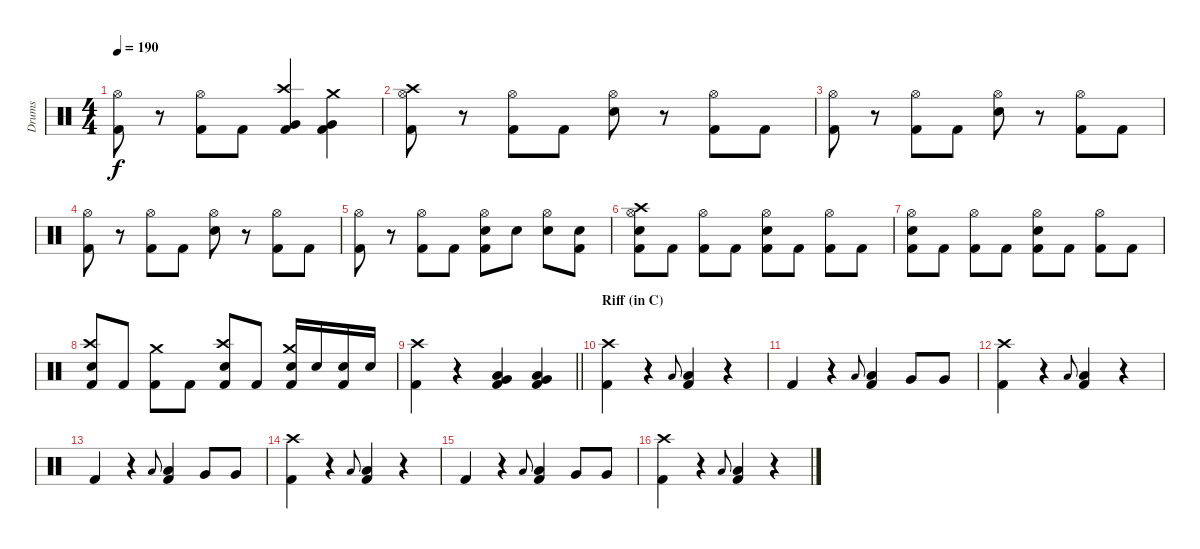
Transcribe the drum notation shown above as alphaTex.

\track ("Drums" "Drums") {instrument percussion}
\staff {score}
\articulation defaults
\ts (4 4)
\tempo 190
\clef neutral
\ks c
("Hi-Hat (open)" "Kick (hit) 2").8{dy f} r.8 ("Hi-Hat (open)" "Kick (hit) 2").8 "Kick (hit) 2".8 ("Crash high (hit)" "Very Low Tom (hit)" "Kick (hit) 2").4 ("Crash medium (hit)" "Very Low Tom (hit)" "Kick (hit) 2").4 |
("Crash high (hit)" "Hi-Hat (open)" "Kick (hit) 2").8 r.8 ("Hi-Hat (open)" "Kick (hit) 2").8 "Kick (hit) 2".8 ("Hi-Hat (open)" "Snare (hit) 2").8 r.8 ("Hi-Hat (open)" "Kick (hit) 2").8 "Kick (hit) 2".8 |
("Hi-Hat (open)" "Kick (hit) 2").8 r.8 ("Hi-Hat (open)" "Kick (hit) 2").8 "Kick (hit) 2".8 ("Hi-Hat (open)" "Snare (hit) 2").8 r.8 ("Hi-Hat (open)" "Kick (hit) 2").8 "Kick (hit) 2".8 |
("Hi-Hat (open)" "Kick (hit) 2").8 r.8 ("Hi-Hat (open)" "Kick (hit) 2").8 "Kick (hit) 2".8 ("Hi-Hat (open)" "Snare (hit) 2").8 r.8 ("Hi-Hat (open)" "Kick (hit) 2").8 "Kick (hit) 2".8 |
("Hi-Hat (open)" "Kick (hit) 2").8 r.8 ("Hi-Hat (open)" "Kick (hit) 2").8 "Kick (hit) 2".8 ("Hi-Hat (open)" "Snare (hit) 2" "Kick (hit) 2").8 "Snare (hit) 2".8 ("Hi-Hat (open)" "Snare (hit) 2").8 ("Snare (hit) 2" "Kick (hit) 2").8 |
("Crash high (hit)" "Hi-Hat (open)" "Snare (hit) 2" "Kick (hit) 2").8 "Kick (hit) 2".8 ("Hi-Hat (open)" "Kick (hit) 2").8 "Kick (hit) 2".8 ("Hi-Hat (open)" "Snare (hit) 2" "Kick (hit) 2").8 "Kick (hit) 2".8 ("Hi-Hat (open)" "Kick (hit) 2").8 "Kick (hit) 2".8 |
("Hi-Hat (open)" "Snare (hit) 2" "Kick (hit) 2").8 "Kick (hit) 2".8 ("Hi-Hat (open)" "Kick (hit) 2").8 "Kick (hit) 2".8 ("Hi-Hat (open)" "Snare (hit) 2" "Kick (hit) 2").8 "Kick (hit) 2".8 ("Hi-Hat (open)" "Kick (hit) 2").8 "Kick (hit) 2".8 |
("Crash high (hit)" "Snare (hit) 2" "Kick (hit) 2").8 "Kick (hit) 2".8 ("Crash medium (hit)" "Kick (hit) 2").8 "Kick (hit) 2".8 ("Crash high (hit)" "Snare (hit) 2" "Kick (hit) 2").8 "Kick (hit) 2".8 ("Crash medium (hit)" "Snare (hit) 2" "Kick (hit) 2").16 "Snare (hit) 2".16 ("Snare (hit) 2" "Kick (hit) 2").16 "Snare (hit) 2".16 |
\barLineRight lightlight
("Crash high (hit)" "Kick (hit) 2").4 r.4 ("Very Low Tom (hit)" "Low Floor Tom (hit)" "Kick (hit) 2").4 ("Very Low Tom (hit)" "Low Floor Tom (hit)" "Kick (hit) 2").4 |
\section ("" "Riff (in C)")
("Crash high (hit)" "Kick (hit) 2").4 r.4 "Low Floor Tom (hit)".8{gr onbeat} ("Low Floor Tom (hit)" "Kick (hit) 2").4 r.4 |
"Kick (hit) 2".4 r.4 "Low Floor Tom (hit)".8{gr onbeat} ("Low Floor Tom (hit)" "Kick (hit) 2").4 "Very Low Tom (hit)".8 "Very Low Tom (hit)".8 |
("Crash high (hit)" "Kick (hit) 2").4 r.4 "Low Floor Tom (hit)".8{gr onbeat} ("Low Floor Tom (hit)" "Kick (hit) 2").4 r.4 |
"Kick (hit) 2".4 r.4 "Low Floor Tom (hit)".8{gr onbeat} ("Low Floor Tom (hit)" "Kick (hit) 2").4 "Very Low Tom (hit)".8 "Very Low Tom (hit)".8 |
("Crash high (hit)" "Kick (hit) 2").4 r.4 "Low Floor Tom (hit)".8{gr onbeat} ("Low Floor Tom (hit)" "Kick (hit) 2").4 r.4 |
"Kick (hit) 2".4 r.4 "Low Floor Tom (hit)".8{gr onbeat} ("Low Floor Tom (hit)" "Kick (hit) 2").4 "Very Low Tom (hit)".8 "Very Low Tom (hit)".8 |
("Crash high (hit)" "Kick (hit) 2").4 r.4 "Low Floor Tom (hit)".8{gr onbeat} ("Low Floor Tom (hit)" "Kick (hit) 2").4 r.4
